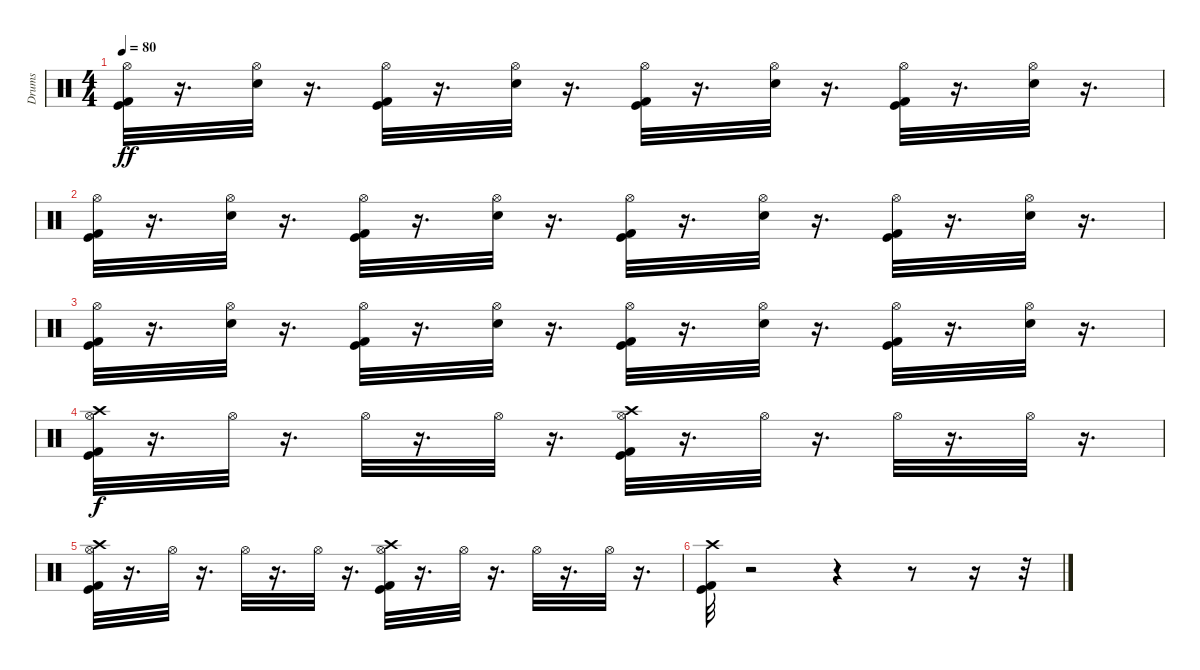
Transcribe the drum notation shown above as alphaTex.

\track ("Drums" "Drums") {instrument percussion}
\staff {score}
\articulation defaults
\ts (4 4)
\tempo 80
\clef neutral
\ks c
("Kick (hit)" "Hi-Hat (open)" "Kick (hit) 2").32{dy ff} r.16{d} ("Hi-Hat (open)" "Electric Snare (hit)").32 r.16{d} ("Hi-Hat (open)" "Kick (hit) 2" "Kick (hit)").32 r.16{d} ("Hi-Hat (open)" "Electric Snare (hit)").32 r.16{d} ("Kick (hit)" "Hi-Hat (open)" "Kick (hit) 2").32 r.16{d} ("Hi-Hat (open)" "Electric Snare (hit)").32 r.16{d} ("Kick (hit) 2" "Kick (hit)" "Hi-Hat (open)").32 r.16{d} ("Hi-Hat (open)" "Electric Snare (hit)").32 r.16{d} |
("Kick (hit)" "Hi-Hat (open)" "Kick (hit) 2").32 r.16{d} ("Hi-Hat (open)" "Electric Snare (hit)").32 r.16{d} ("Hi-Hat (open)" "Kick (hit) 2" "Kick (hit)").32 r.16{d} ("Hi-Hat (open)" "Electric Snare (hit)").32 r.16{d} ("Kick (hit)" "Hi-Hat (open)" "Kick (hit) 2").32 r.16{d} ("Hi-Hat (open)" "Electric Snare (hit)").32 r.16{d} ("Kick (hit) 2" "Kick (hit)" "Hi-Hat (open)").32 r.16{d} ("Hi-Hat (open)" "Electric Snare (hit)").32 r.16{d} |
("Kick (hit)" "Hi-Hat (open)" "Kick (hit) 2").32 r.16{d} ("Hi-Hat (open)" "Electric Snare (hit)").32 r.16{d} ("Hi-Hat (open)" "Kick (hit) 2" "Kick (hit)").32 r.16{d} ("Hi-Hat (open)" "Electric Snare (hit)").32 r.16{d} ("Kick (hit)" "Hi-Hat (open)" "Kick (hit) 2").32 r.16{d} ("Hi-Hat (open)" "Electric Snare (hit)").32 r.16{d} ("Kick (hit) 2" "Kick (hit)" "Hi-Hat (open)").32 r.16{d} ("Hi-Hat (open)" "Electric Snare (hit)").32 r.16{d} |
("Kick (hit)" "Kick (hit) 2" "Crash high (hit)" "Hi-Hat (open)").32{dy f} r.16{d} "Hi-Hat (open)".32 r.16{d} "Hi-Hat (open)".32 r.16{d} "Hi-Hat (open)".32 r.16{d} ("Kick (hit)" "Kick (hit) 2" "Crash high (hit)" "Hi-Hat (open)").32 r.16{d} "Hi-Hat (open)".32 r.16{d} "Hi-Hat (open)".32 r.16{d} "Hi-Hat (open)".32 r.16{d} |
("Kick (hit)" "Kick (hit) 2" "Crash high (hit)" "Hi-Hat (open)").32 r.16{d} "Hi-Hat (open)".32 r.16{d} "Hi-Hat (open)".32 r.16{d} "Hi-Hat (open)".32 r.16{d} ("Kick (hit)" "Kick (hit) 2" "Crash high (hit)" "Hi-Hat (open)").32 r.16{d} "Hi-Hat (open)".32 r.16{d} "Hi-Hat (open)".32 r.16{d} "Hi-Hat (open)".32 r.16{d} |
("Kick (hit)" "Kick (hit) 2" "Crash high (hit)").32 r.2 r.4 r.8 r.16 r.32
